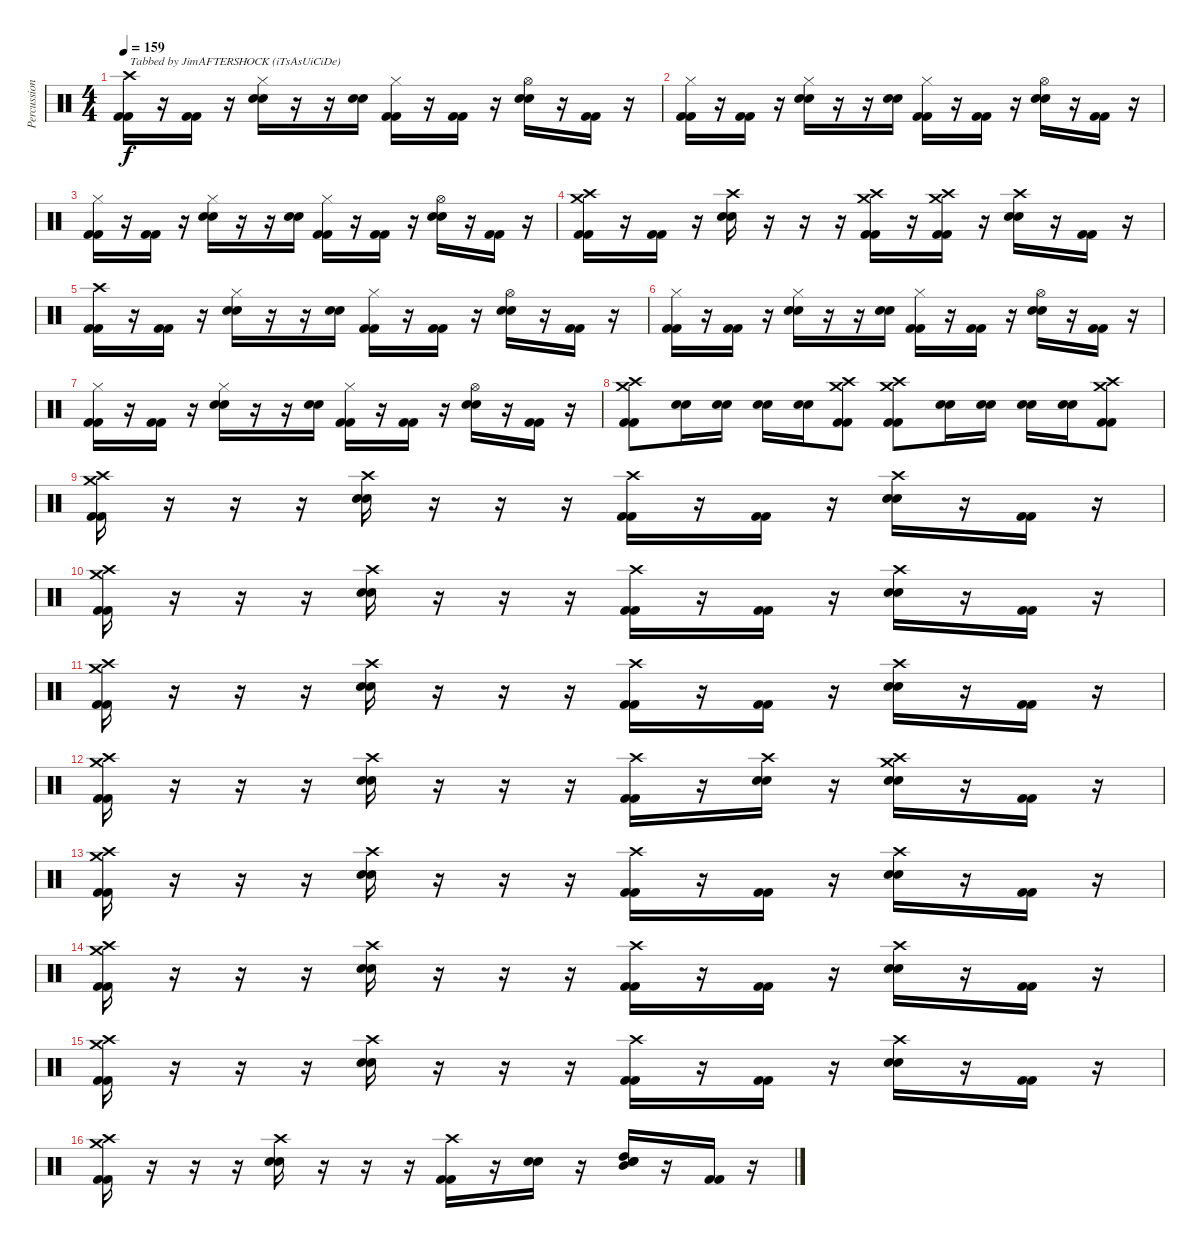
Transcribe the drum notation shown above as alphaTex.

\track ("Percussioni" "Percussion") {instrument percussion}
\staff {score}
\articulation defaults
\ts (4 4)
\tempo 159
\clef neutral
\ks c
("Crash high (hit)" "Kick (hit) 2" "Kick (hit) 2").16{txt "Tabbed by JimAFTERSHOCK (iTsAsUiCiDe)" dy f} r.16 ("Kick (hit) 2" "Kick (hit) 2").16 r.16 ("Hi-Hat (closed)" "Snare (hit) 2" "Snare (hit) 2").16 r.16 r.16 ("Snare (hit) 2" "Snare (hit) 2").16 ("Hi-Hat (closed)" "Kick (hit) 2" "Kick (hit) 2").16 r.16 ("Kick (hit) 2" "Kick (hit) 2").16 r.16 ("Hi-Hat (open)" "Snare (hit) 2" "Snare (hit) 2").16 r.16 ("Kick (hit) 2" "Kick (hit) 2").16 r.16 |
("Hi-Hat (closed)" "Kick (hit) 2" "Kick (hit) 2").16 r.16 ("Kick (hit) 2" "Kick (hit) 2").16 r.16 ("Hi-Hat (closed)" "Snare (hit) 2" "Snare (hit) 2").16 r.16 r.16 ("Snare (hit) 2" "Snare (hit) 2").16 ("Hi-Hat (closed)" "Kick (hit) 2" "Kick (hit) 2").16 r.16 ("Kick (hit) 2" "Kick (hit) 2").16 r.16 ("Hi-Hat (open)" "Snare (hit) 2" "Snare (hit) 2").16 r.16 ("Kick (hit) 2" "Kick (hit) 2").16 r.16 |
("Hi-Hat (closed)" "Kick (hit) 2" "Kick (hit) 2").16 r.16 ("Kick (hit) 2" "Kick (hit) 2").16 r.16 ("Hi-Hat (closed)" "Snare (hit) 2" "Snare (hit) 2").16 r.16 r.16 ("Snare (hit) 2" "Snare (hit) 2").16 ("Hi-Hat (closed)" "Kick (hit) 2" "Kick (hit) 2").16 r.16 ("Kick (hit) 2" "Kick (hit) 2").16 r.16 ("Hi-Hat (open)" "Snare (hit) 2" "Snare (hit) 2").16 r.16 ("Kick (hit) 2" "Kick (hit) 2").16 r.16 |
("Crash high (hit)" "Crash medium (hit)" "Kick (hit) 2" "Kick (hit) 2").16 r.16 ("Kick (hit) 2" "Kick (hit) 2").16 r.16 ("Crash high (hit)" "Snare (hit) 2" "Snare (hit) 2").16 r.16 r.16 r.16 ("Crash medium (hit)" "Crash high (hit)" "Kick (hit) 2" "Kick (hit) 2").16 r.16 ("Crash medium (hit)" "Crash high (hit)" "Kick (hit) 2" "Kick (hit) 2").16 r.16 ("Crash high (hit)" "Snare (hit) 2" "Snare (hit) 2").16 r.16 ("Kick (hit) 2" "Kick (hit) 2").16 r.16 |
("Crash high (hit)" "Kick (hit) 2" "Kick (hit) 2").16 r.16 ("Kick (hit) 2" "Kick (hit) 2").16 r.16 ("Hi-Hat (closed)" "Snare (hit) 2" "Snare (hit) 2").16 r.16 r.16 ("Snare (hit) 2" "Snare (hit) 2").16 ("Hi-Hat (closed)" "Kick (hit) 2" "Kick (hit) 2").16 r.16 ("Kick (hit) 2" "Kick (hit) 2").16 r.16 ("Hi-Hat (open)" "Snare (hit) 2" "Snare (hit) 2").16 r.16 ("Kick (hit) 2" "Kick (hit) 2").16 r.16 |
("Hi-Hat (closed)" "Kick (hit) 2" "Kick (hit) 2").16 r.16 ("Kick (hit) 2" "Kick (hit) 2").16 r.16 ("Hi-Hat (closed)" "Snare (hit) 2" "Snare (hit) 2").16 r.16 r.16 ("Snare (hit) 2" "Snare (hit) 2").16 ("Hi-Hat (closed)" "Kick (hit) 2" "Kick (hit) 2").16 r.16 ("Kick (hit) 2" "Kick (hit) 2").16 r.16 ("Hi-Hat (open)" "Snare (hit) 2" "Snare (hit) 2").16 r.16 ("Kick (hit) 2" "Kick (hit) 2").16 r.16 |
("Hi-Hat (closed)" "Kick (hit) 2" "Kick (hit) 2").16 r.16 ("Kick (hit) 2" "Kick (hit) 2").16 r.16 ("Hi-Hat (closed)" "Snare (hit) 2" "Snare (hit) 2").16 r.16 r.16 ("Snare (hit) 2" "Snare (hit) 2").16 ("Hi-Hat (closed)" "Kick (hit) 2" "Kick (hit) 2").16 r.16 ("Kick (hit) 2" "Kick (hit) 2").16 r.16 ("Hi-Hat (open)" "Snare (hit) 2" "Snare (hit) 2").16 r.16 ("Kick (hit) 2" "Kick (hit) 2").16 r.16 |
("Crash medium (hit)" "Crash high (hit)" "Kick (hit) 2" "Kick (hit) 2").8 ("Snare (hit) 2" "Snare (hit) 2").16 ("Snare (hit) 2" "Snare (hit) 2").16 ("Snare (hit) 2" "Snare (hit) 2").16 ("Snare (hit) 2" "Snare (hit) 2").16 ("Crash high (hit)" "Crash medium (hit)" "Kick (hit) 2" "Kick (hit) 2").8 ("Crash medium (hit)" "Crash high (hit)" "Kick (hit) 2" "Kick (hit) 2").8 ("Snare (hit) 2" "Snare (hit) 2").16 ("Snare (hit) 2" "Snare (hit) 2").16 ("Snare (hit) 2" "Snare (hit) 2").16 ("Snare (hit) 2" "Snare (hit) 2").16 ("Crash medium (hit)" "Crash high (hit)" "Kick (hit) 2" "Kick (hit) 2").8 |
("Crash high (hit)" "Crash medium (hit)" "Kick (hit) 2" "Kick (hit) 2").16 r.16 r.16 r.16 ("Crash high (hit)" "Snare (hit) 2" "Snare (hit) 2").16 r.16 r.16 r.16 ("Crash high (hit)" "Kick (hit) 2" "Kick (hit) 2").16 r.16 ("Kick (hit) 2" "Kick (hit) 2").16 r.16 ("Crash high (hit)" "Snare (hit) 2" "Snare (hit) 2").16 r.16 ("Kick (hit) 2" "Kick (hit) 2").16 r.16 |
("Crash high (hit)" "Crash medium (hit)" "Kick (hit) 2" "Kick (hit) 2").16 r.16 r.16 r.16 ("Crash high (hit)" "Snare (hit) 2" "Snare (hit) 2").16 r.16 r.16 r.16 ("Crash high (hit)" "Kick (hit) 2" "Kick (hit) 2").16 r.16 ("Kick (hit) 2" "Kick (hit) 2").16 r.16 ("Crash high (hit)" "Snare (hit) 2" "Snare (hit) 2").16 r.16 ("Kick (hit) 2" "Kick (hit) 2").16 r.16 |
("Crash high (hit)" "Crash medium (hit)" "Kick (hit) 2" "Kick (hit) 2").16 r.16 r.16 r.16 ("Crash high (hit)" "Snare (hit) 2" "Snare (hit) 2").16 r.16 r.16 r.16 ("Crash high (hit)" "Kick (hit) 2" "Kick (hit) 2").16 r.16 ("Kick (hit) 2" "Kick (hit) 2").16 r.16 ("Crash high (hit)" "Snare (hit) 2" "Snare (hit) 2").16 r.16 ("Kick (hit) 2" "Kick (hit) 2").16 r.16 |
("Crash high (hit)" "Crash medium (hit)" "Kick (hit) 2" "Kick (hit) 2").16 r.16 r.16 r.16 ("Crash high (hit)" "Snare (hit) 2" "Snare (hit) 2").16 r.16 r.16 r.16 ("Crash high (hit)" "Kick (hit) 2" "Kick (hit) 2").16 r.16 ("Crash high (hit)" "Snare (hit) 2" "Snare (hit) 2").16 r.16 ("Crash high (hit)" "Crash medium (hit)" "Snare (hit) 2" "Snare (hit) 2").16 r.16 ("Kick (hit) 2" "Kick (hit) 2").16 r.16 |
("Crash high (hit)" "Crash medium (hit)" "Kick (hit) 2" "Kick (hit) 2").16 r.16 r.16 r.16 ("Crash high (hit)" "Snare (hit) 2" "Snare (hit) 2").16 r.16 r.16 r.16 ("Crash high (hit)" "Kick (hit) 2" "Kick (hit) 2").16 r.16 ("Kick (hit) 2" "Kick (hit) 2").16 r.16 ("Crash high (hit)" "Snare (hit) 2" "Snare (hit) 2").16 r.16 ("Kick (hit) 2" "Kick (hit) 2").16 r.16 |
("Crash high (hit)" "Crash medium (hit)" "Kick (hit) 2" "Kick (hit) 2").16 r.16 r.16 r.16 ("Crash high (hit)" "Snare (hit) 2" "Snare (hit) 2").16 r.16 r.16 r.16 ("Crash high (hit)" "Kick (hit) 2" "Kick (hit) 2").16 r.16 ("Kick (hit) 2" "Kick (hit) 2").16 r.16 ("Crash high (hit)" "Snare (hit) 2" "Snare (hit) 2").16 r.16 ("Kick (hit) 2" "Kick (hit) 2").16 r.16 |
("Crash high (hit)" "Crash medium (hit)" "Kick (hit) 2" "Kick (hit) 2").16 r.16 r.16 r.16 ("Crash high (hit)" "Snare (hit) 2" "Snare (hit) 2").16 r.16 r.16 r.16 ("Crash high (hit)" "Kick (hit) 2" "Kick (hit) 2").16 r.16 ("Kick (hit) 2" "Kick (hit) 2").16 r.16 ("Crash high (hit)" "Snare (hit) 2" "Snare (hit) 2").16 r.16 ("Kick (hit) 2" "Kick (hit) 2").16 r.16 |
("Crash high (hit)" "Crash medium (hit)" "Kick (hit) 2" "Kick (hit) 2").16 r.16 r.16 r.16 ("Crash high (hit)" "Snare (hit) 2" "Snare (hit) 2").16 r.16 r.16 r.16 ("Crash high (hit)" "Kick (hit) 2" "Kick (hit) 2").16 r.16 ("Snare (hit) 2" "Snare (hit) 2").16 r.16 ("High Tom (hit)" "Mid Tom (hit)" "Snare (hit) 2" "Snare (hit) 2").16 r.16 ("Kick (hit) 2" "Kick (hit) 2").16 r.16
